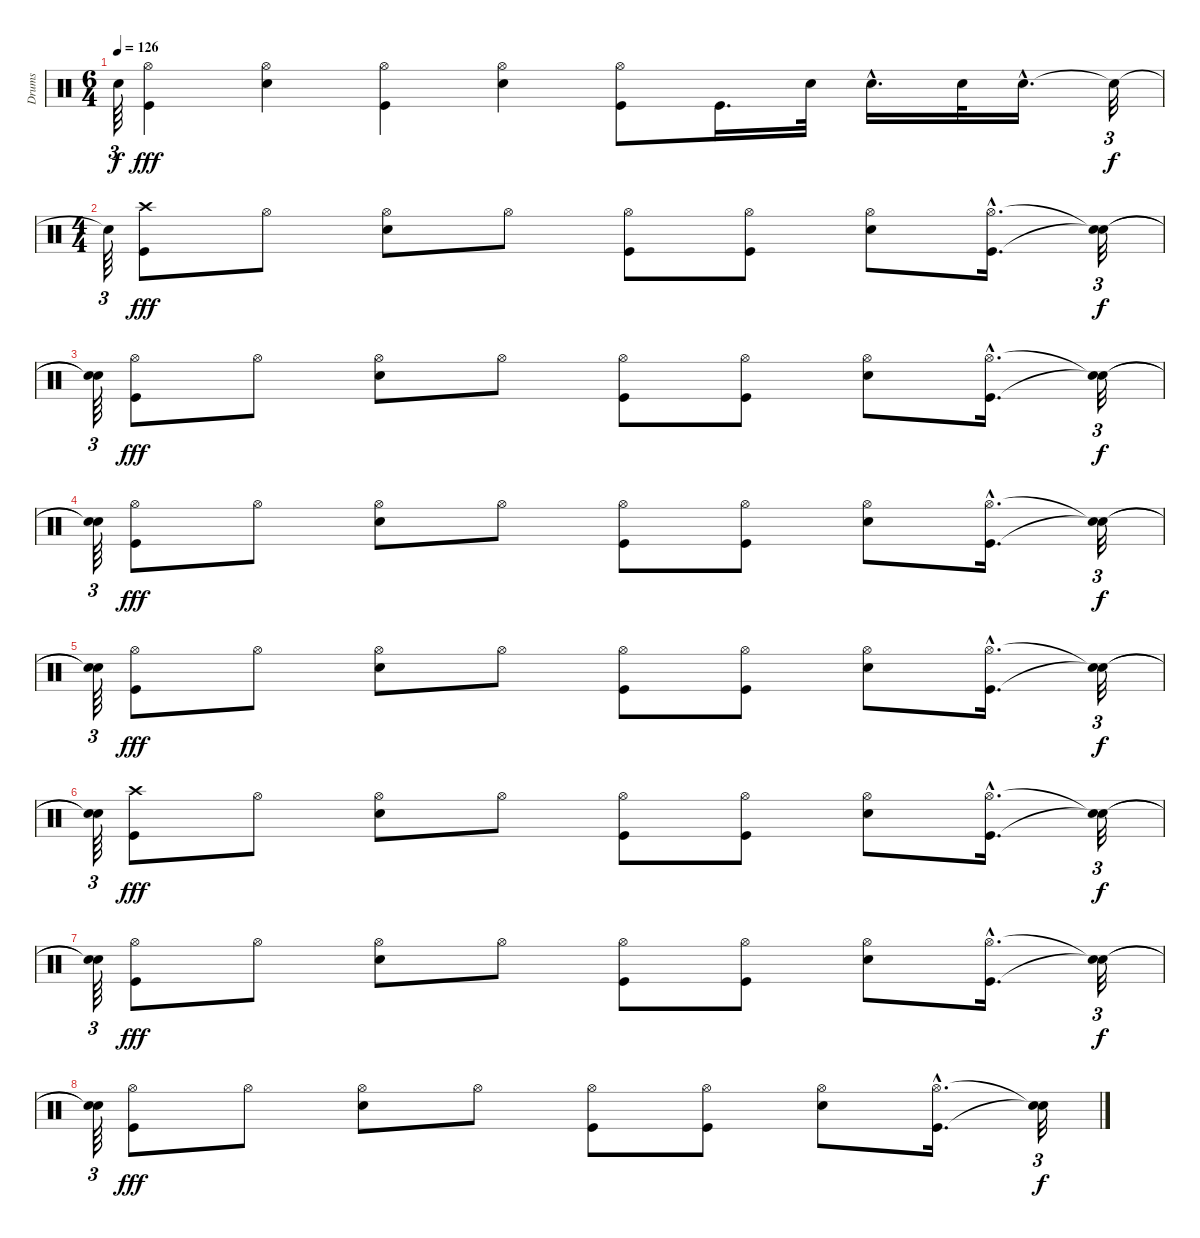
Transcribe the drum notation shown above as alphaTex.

\track ("Drums" "Drums") {instrument percussion}
\staff {score}
\articulation defaults
\ts (6 4)
\tempo 126
\clef neutral
\ks c "Snare (hit)"{t}.64{tu (3 2) dy f}
("Kick (hit)" "Hi-Hat (open)").4{dy fff} ("Snare (hit) 2" "Hi-Hat (open)").4 ("Kick (hit)" "Hi-Hat (open)").4 ("Snare (hit) 2" "Hi-Hat (open)").4 ("Kick (hit)" "Hi-Hat (open)").8 "Kick (hit)".16{d} "Snare (hit) 2".32 "Snare (hit) 2"{hac}.16{d} "Snare (hit) 2".32 "Snare (hit) 2"{hac}.16{d} "Snare (hit)"{t}.32{tu (3 2) dy f} |
\ts (4 4)
"Snare (hit)"{t}.64{tu (3 2)} ("Kick (hit)" "Crash high (hit)").8{dy fff} "Hi-Hat (open)".8 ("Snare (hit) 2" "Hi-Hat (open)").8 "Hi-Hat (open)".8 ("Kick (hit)" "Hi-Hat (open)").8 ("Kick (hit)" "Hi-Hat (open)").8 ("Snare (hit) 2" "Hi-Hat (open)").8 ("Kick (hit)"{hac} "Hi-Hat (open)"{hac}).16{d} ("Snare (hit)"{t} "Snare (hit)"{t}).32{tu (3 2) dy f} |
("Snare (hit)"{t} "Snare (hit)"{t}).64{tu (3 2)} ("Kick (hit)" "Hi-Hat (open)").8{dy fff} "Hi-Hat (open)".8 ("Snare (hit) 2" "Hi-Hat (open)").8 "Hi-Hat (open)".8 ("Kick (hit)" "Hi-Hat (open)").8 ("Kick (hit)" "Hi-Hat (open)").8 ("Snare (hit) 2" "Hi-Hat (open)").8 ("Kick (hit)"{hac} "Hi-Hat (open)"{hac}).16{d} ("Snare (hit)"{t} "Snare (hit)"{t}).32{tu (3 2) dy f} |
("Snare (hit)"{t} "Snare (hit)"{t}).64{tu (3 2)} ("Kick (hit)" "Hi-Hat (open)").8{dy fff} "Hi-Hat (open)".8 ("Snare (hit) 2" "Hi-Hat (open)").8 "Hi-Hat (open)".8 ("Kick (hit)" "Hi-Hat (open)").8 ("Kick (hit)" "Hi-Hat (open)").8 ("Snare (hit) 2" "Hi-Hat (open)").8 ("Kick (hit)"{hac} "Hi-Hat (open)"{hac}).16{d} ("Snare (hit)"{t} "Snare (hit)"{t}).32{tu (3 2) dy f} |
("Snare (hit)"{t} "Snare (hit)"{t}).64{tu (3 2)} ("Kick (hit)" "Hi-Hat (open)").8{dy fff} "Hi-Hat (open)".8 ("Snare (hit) 2" "Hi-Hat (open)").8 "Hi-Hat (open)".8 ("Kick (hit)" "Hi-Hat (open)").8 ("Kick (hit)" "Hi-Hat (open)").8 ("Snare (hit) 2" "Hi-Hat (open)").8 ("Kick (hit)"{hac} "Hi-Hat (open)"{hac}).16{d} ("Snare (hit)"{t} "Snare (hit)"{t}).32{tu (3 2) dy f} |
("Snare (hit)"{t} "Snare (hit)"{t}).64{tu (3 2)} ("Kick (hit)" "Crash high (hit)").8{dy fff} "Hi-Hat (open)".8 ("Snare (hit) 2" "Hi-Hat (open)").8 "Hi-Hat (open)".8 ("Kick (hit)" "Hi-Hat (open)").8 ("Kick (hit)" "Hi-Hat (open)").8 ("Snare (hit) 2" "Hi-Hat (open)").8 ("Kick (hit)"{hac} "Hi-Hat (open)"{hac}).16{d} ("Snare (hit)"{t} "Snare (hit)"{t}).32{tu (3 2) dy f} |
("Snare (hit)"{t} "Snare (hit)"{t}).64{tu (3 2)} ("Kick (hit)" "Hi-Hat (open)").8{dy fff} "Hi-Hat (open)".8 ("Snare (hit) 2" "Hi-Hat (open)").8 "Hi-Hat (open)".8 ("Kick (hit)" "Hi-Hat (open)").8 ("Kick (hit)" "Hi-Hat (open)").8 ("Snare (hit) 2" "Hi-Hat (open)").8 ("Kick (hit)"{hac} "Hi-Hat (open)"{hac}).16{d} ("Snare (hit)"{t} "Snare (hit)"{t}).32{tu (3 2) dy f} |
("Snare (hit)"{t} "Snare (hit)"{t}).64{tu (3 2)} ("Kick (hit)" "Hi-Hat (open)").8{dy fff} "Hi-Hat (open)".8 ("Snare (hit) 2" "Hi-Hat (open)").8 "Hi-Hat (open)".8 ("Kick (hit)" "Hi-Hat (open)").8 ("Kick (hit)" "Hi-Hat (open)").8 ("Snare (hit) 2" "Hi-Hat (open)").8 ("Kick (hit)"{hac} "Hi-Hat (open)"{hac}).16{d} ("Snare (hit)"{t} "Snare (hit)"{t}).32{tu (3 2) dy f}
